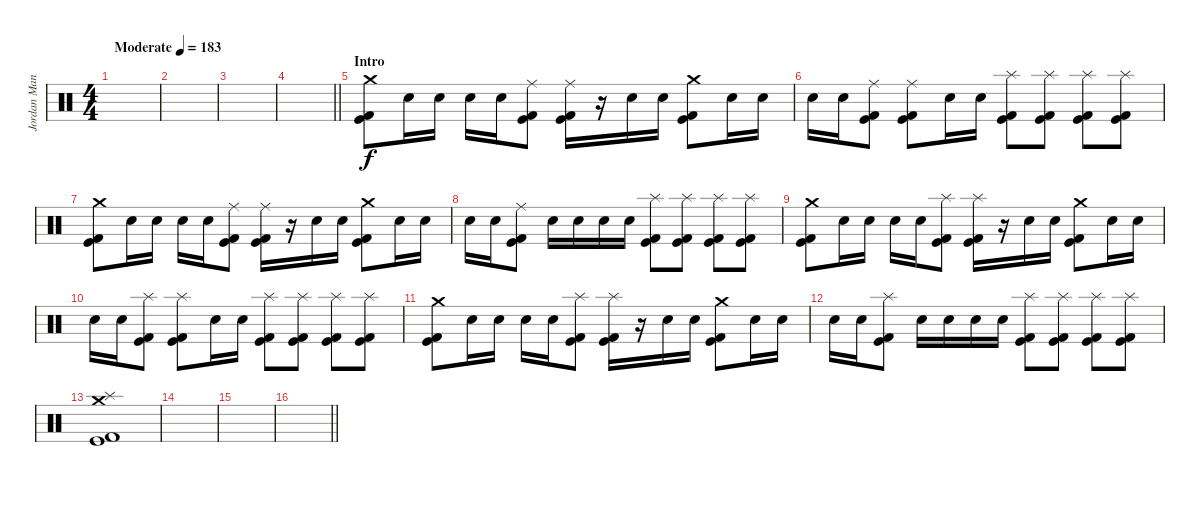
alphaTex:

\track ("Jordan Mancino" "Jordan Man") {instrument percussion}
\staff {score}
\articulation defaults
\ts (4 4)
\tempo (183 "Moderate")
\clef neutral
\ks c
|
|
|
\barLineRight lightlight
|
\section ("" "Intro")
("Crash medium (hit)" "Kick (hit)" "Kick (hit) 2").8 "Snare (hit) 2".16 "Snare (hit) 2".16 "Snare (hit) 2".16 "Snare (hit) 2".16 ("Ride (middle)" "Kick (hit)" "Kick (hit) 2").8 ("Ride (middle)" "Kick (hit)" "Kick (hit) 2").16 r.16 "Snare (hit) 2".16 "Snare (hit) 2".16 ("Crash medium (hit)" "Kick (hit)" "Kick (hit) 2").8 "Snare (hit) 2".16 "Snare (hit) 2".16 |
"Snare (hit) 2".16 "Snare (hit) 2".16 ("Ride (middle)" "Kick (hit)" "Kick (hit) 2").8 ("Ride (middle)" "Kick (hit)" "Kick (hit) 2").8 "Snare (hit) 2".16 "Snare (hit) 2".16 ("Splash (hit)" "Kick (hit)" "Kick (hit) 2").8 ("Splash (hit)" "Kick (hit)" "Kick (hit) 2").8 ("Splash (hit)" "Kick (hit)" "Kick (hit) 2").8 ("Splash (hit)" "Kick (hit)" "Kick (hit) 2").8 |
("Crash medium (hit)" "Kick (hit)" "Kick (hit) 2").8 "Snare (hit) 2".16 "Snare (hit) 2".16 "Snare (hit) 2".16 "Snare (hit) 2".16 ("Ride (middle)" "Kick (hit)" "Kick (hit) 2").8 ("Ride (middle)" "Kick (hit)" "Kick (hit) 2").16 r.16 "Snare (hit) 2".16 "Snare (hit) 2".16 ("Crash medium (hit)" "Kick (hit)" "Kick (hit) 2").8 "Snare (hit) 2".16 "Snare (hit) 2".16 |
"Snare (hit) 2".16 "Snare (hit) 2".16 ("Ride (middle)" "Kick (hit)" "Kick (hit) 2").8 "Snare (hit) 2".16 "Snare (hit) 2".16 "Snare (hit) 2".16 "Snare (hit) 2".16 ("Splash (hit)" "Kick (hit)" "Kick (hit) 2").8 ("Splash (hit)" "Kick (hit)" "Kick (hit) 2").8 ("Splash (hit)" "Kick (hit)" "Kick (hit) 2").8 ("Splash (hit)" "Kick (hit)" "Kick (hit) 2").8 |
("Crash medium (hit)" "Kick (hit)" "Kick (hit) 2").8 "Snare (hit) 2".16 "Snare (hit) 2".16 "Snare (hit) 2".16 "Snare (hit) 2".16 ("Splash (hit)" "Kick (hit)" "Kick (hit) 2").8 ("Splash (hit)" "Kick (hit)" "Kick (hit) 2").16 r.16 "Snare (hit) 2".16 "Snare (hit) 2".16 ("Crash medium (hit)" "Kick (hit)" "Kick (hit) 2").8 "Snare (hit) 2".16 "Snare (hit) 2".16 |
"Snare (hit) 2".16 "Snare (hit) 2".16 ("Splash (hit)" "Kick (hit)" "Kick (hit) 2").8 ("Splash (hit)" "Kick (hit)" "Kick (hit) 2").8 "Snare (hit) 2".16 "Snare (hit) 2".16 ("Splash (hit)" "Kick (hit)" "Kick (hit) 2").8 ("Splash (hit)" "Kick (hit)" "Kick (hit) 2").8 ("Splash (hit)" "Kick (hit)" "Kick (hit) 2").8 ("Splash (hit)" "Kick (hit)" "Kick (hit) 2").8 |
("Crash medium (hit)" "Kick (hit)" "Kick (hit) 2").8 "Snare (hit) 2".16 "Snare (hit) 2".16 "Snare (hit) 2".16 "Snare (hit) 2".16 ("Splash (hit)" "Kick (hit)" "Kick (hit) 2").8 ("Splash (hit)" "Kick (hit)" "Kick (hit) 2").16 r.16 "Snare (hit) 2".16 "Snare (hit) 2".16 ("Crash medium (hit)" "Kick (hit)" "Kick (hit) 2").8 "Snare (hit) 2".16 "Snare (hit) 2".16 |
"Snare (hit) 2".16 "Snare (hit) 2".16 ("Splash (hit)" "Kick (hit)" "Kick (hit) 2").8 "Snare (hit) 2".16 "Snare (hit) 2".16 "Snare (hit) 2".16 "Snare (hit) 2".16 ("Splash (hit)" "Kick (hit)" "Kick (hit) 2").8 ("Splash (hit)" "Kick (hit)" "Kick (hit) 2").8 ("Splash (hit)" "Kick (hit)" "Kick (hit) 2").8 ("Splash (hit)" "Kick (hit)" "Kick (hit) 2").8 |
("Crash medium (hit)" "Splash (hit)" "Kick (hit)" "Kick (hit) 2").1 |
|
|
\barLineRight lightlight
